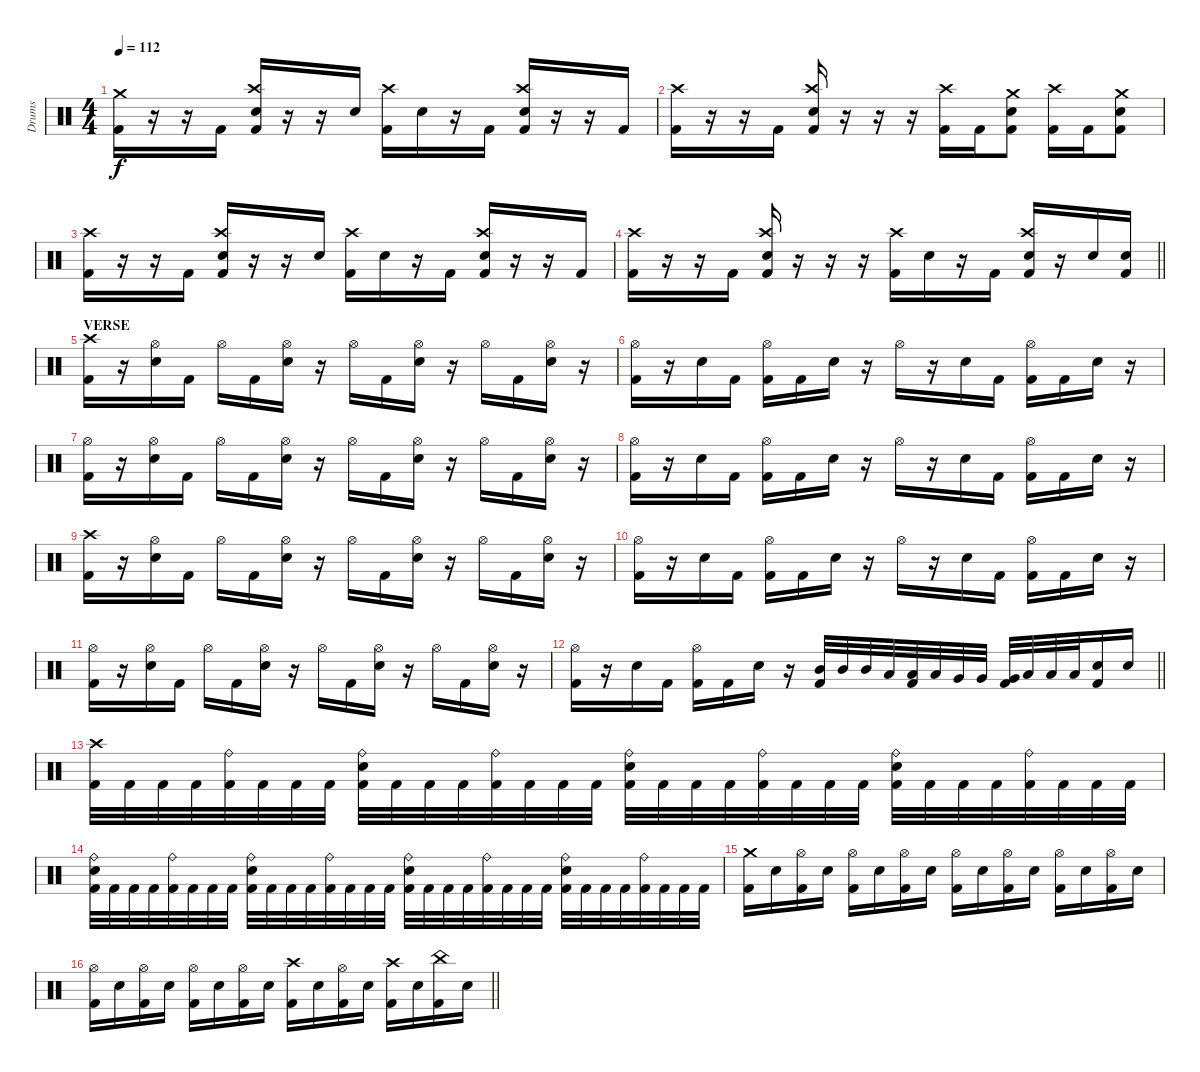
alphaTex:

\track ("Drums" "Drums") {instrument percussion}
\staff
\articulation defaults
\ts (4 4)
\tempo 112
\clef neutral
\ks c
("Crash medium (hit)" "Kick (hit) 2").16{dy f} r.16 r.16 "Kick (hit) 2".16 ("Crash high (hit)" "Snare (hit) 2" "Kick (hit) 2").16 r.16 r.16 "Snare (hit) 2".16 ("Crash high (hit)" "Kick (hit) 2").16 "Snare (hit) 2".16 r.16 "Kick (hit) 2".16 ("Crash high (hit)" "Snare (hit) 2" "Kick (hit) 2").16 r.16 r.16 "Kick (hit) 2".16 |
("Crash high (hit)" "Kick (hit) 2").16 r.16 r.16 "Kick (hit) 2".16 ("Crash high (hit)" "Snare (hit) 2" "Kick (hit) 2").16 r.16 r.16 r.16 ("Crash high (hit)" "Kick (hit) 2").16 "Kick (hit) 2".16 ("Crash medium (hit)" "Snare (hit) 2" "Kick (hit) 2").8 ("Crash high (hit)" "Kick (hit) 2").16 "Kick (hit) 2".16 ("Crash medium (hit)" "Snare (hit) 2" "Kick (hit) 2").8 |
("Crash high (hit)" "Kick (hit) 2").16 r.16 r.16 "Kick (hit) 2".16 ("Crash high (hit)" "Snare (hit) 2" "Kick (hit) 2").16 r.16 r.16 "Snare (hit) 2".16 ("Crash high (hit)" "Kick (hit) 2").16 "Snare (hit) 2".16 r.16 "Kick (hit) 2".16 ("Crash high (hit)" "Snare (hit) 2" "Kick (hit) 2").16 r.16 r.16 "Kick (hit) 2".16 |
\barLineRight lightlight
("Crash high (hit)" "Kick (hit) 2").16 r.16 r.16 "Kick (hit) 2".16 ("Crash high (hit)" "Snare (hit) 2" "Kick (hit) 2").16 r.16 r.16 r.16 ("Crash high (hit)" "Kick (hit) 2").16 "Snare (hit) 2".16 r.16 "Kick (hit) 2".16 ("Crash high (hit)" "Snare (hit) 2" "Kick (hit) 2").16 r.16 "Snare (hit) 2".16 ("Snare (hit) 2" "Kick (hit) 2").16 |
\section ("" "VERSE")
("Crash high (hit)" "Kick (hit) 2").16 r.16 ("Hi-Hat (open)" "Snare (hit) 2").16 "Kick (hit) 2".16 "Hi-Hat (open)".16 "Kick (hit) 2".16 ("Hi-Hat (open)" "Snare (hit) 2").16 r.16 "Hi-Hat (open)".16 "Kick (hit) 2".16 ("Hi-Hat (open)" "Snare (hit) 2").16 r.16 "Hi-Hat (open)".16 "Kick (hit) 2".16 ("Hi-Hat (open)" "Snare (hit) 2").16 r.16 |
("Hi-Hat (open)" "Kick (hit) 2").16 r.16 "Snare (hit) 2".16 "Kick (hit) 2".16 ("Hi-Hat (open)" "Kick (hit) 2").16 "Kick (hit) 2".16 "Snare (hit) 2".16 r.16 "Hi-Hat (open)".16 r.16 "Snare (hit) 2".16 "Kick (hit) 2".16 ("Hi-Hat (open)" "Kick (hit) 2").16 "Kick (hit) 2".16 "Snare (hit) 2".16 r.16 |
("Hi-Hat (open)" "Kick (hit) 2").16 r.16 ("Hi-Hat (open)" "Snare (hit) 2").16 "Kick (hit) 2".16 "Hi-Hat (open)".16 "Kick (hit) 2".16 ("Hi-Hat (open)" "Snare (hit) 2").16 r.16 "Hi-Hat (open)".16 "Kick (hit) 2".16 ("Hi-Hat (open)" "Snare (hit) 2").16 r.16 "Hi-Hat (open)".16 "Kick (hit) 2".16 ("Hi-Hat (open)" "Snare (hit) 2").16 r.16 |
("Hi-Hat (open)" "Kick (hit) 2").16 r.16 "Snare (hit) 2".16 "Kick (hit) 2".16 ("Hi-Hat (open)" "Kick (hit) 2").16 "Kick (hit) 2".16 "Snare (hit) 2".16 r.16 "Hi-Hat (open)".16 r.16 "Snare (hit) 2".16 "Kick (hit) 2".16 ("Hi-Hat (open)" "Kick (hit) 2").16 "Kick (hit) 2".16 "Snare (hit) 2".16 r.16 |
("Crash high (hit)" "Kick (hit) 2").16 r.16 ("Hi-Hat (open)" "Snare (hit) 2").16 "Kick (hit) 2".16 "Hi-Hat (open)".16 "Kick (hit) 2".16 ("Hi-Hat (open)" "Snare (hit) 2").16 r.16 "Hi-Hat (open)".16 "Kick (hit) 2".16 ("Hi-Hat (open)" "Snare (hit) 2").16 r.16 "Hi-Hat (open)".16 "Kick (hit) 2".16 ("Hi-Hat (open)" "Snare (hit) 2").16 r.16 |
("Hi-Hat (open)" "Kick (hit) 2").16 r.16 "Snare (hit) 2".16 "Kick (hit) 2".16 ("Hi-Hat (open)" "Kick (hit) 2").16 "Kick (hit) 2".16 "Snare (hit) 2".16 r.16 "Hi-Hat (open)".16 r.16 "Snare (hit) 2".16 "Kick (hit) 2".16 ("Hi-Hat (open)" "Kick (hit) 2").16 "Kick (hit) 2".16 "Snare (hit) 2".16 r.16 |
("Hi-Hat (open)" "Kick (hit) 2").16 r.16 ("Hi-Hat (open)" "Snare (hit) 2").16 "Kick (hit) 2".16 "Hi-Hat (open)".16 "Kick (hit) 2".16 ("Hi-Hat (open)" "Snare (hit) 2").16 r.16 "Hi-Hat (open)".16 "Kick (hit) 2".16 ("Hi-Hat (open)" "Snare (hit) 2").16 r.16 "Hi-Hat (open)".16 "Kick (hit) 2".16 ("Hi-Hat (open)" "Snare (hit) 2").16 r.16 |
\barLineRight lightlight
("Hi-Hat (open)" "Kick (hit) 2").16 r.16 "Snare (hit) 2".16 "Kick (hit) 2".16 ("Hi-Hat (open)" "Kick (hit) 2").16 "Kick (hit) 2".16 "Snare (hit) 2".16 r.16 ("Mid Tom (hit)" "Kick (hit) 2").32 "Mid Tom (hit)".32 "Mid Tom (hit)".32 "Low Tom (hit)".32 ("Low Tom (hit)" "Kick (hit) 2").32 "Low Tom (hit)".32 "Very Low Tom (hit)".32 "Very Low Tom (hit)".32 ("Very Low Tom (hit)" "Kick (hit) 2").32 "Low Floor Tom (hit)".32 "Low Floor Tom (hit)".32 "Low Floor Tom (hit)".32 ("Snare (hit) 2" "Kick (hit) 2").16 "Snare (hit) 2".16 |
\section ("" "")
("Crash high (hit)" "Kick (hit) 2").32 "Kick (hit) 2".32 "Kick (hit) 2".32 "Kick (hit) 2".32 ("Ride (bell)" "Kick (hit) 2").32 "Kick (hit) 2".32 "Kick (hit) 2".32 "Kick (hit) 2".32 ("Ride (bell)" "Snare (hit) 2" "Kick (hit) 2").32 "Kick (hit) 2".32 "Kick (hit) 2".32 "Kick (hit) 2".32 ("Ride (bell)" "Kick (hit) 2").32 "Kick (hit) 2".32 "Kick (hit) 2".32 "Kick (hit) 2".32 ("Ride (bell)" "Snare (hit) 2" "Kick (hit) 2").32 "Kick (hit) 2".32 "Kick (hit) 2".32 "Kick (hit) 2".32 ("Ride (bell)" "Kick (hit) 2").32 "Kick (hit) 2".32 "Kick (hit) 2".32 "Kick (hit) 2".32 ("Ride (bell)" "Snare (hit) 2" "Kick (hit) 2").32 "Kick (hit) 2".32 "Kick (hit) 2".32 "Kick (hit) 2".32 ("Ride (bell)" "Kick (hit) 2").32 "Kick (hit) 2".32 "Kick (hit) 2".32 "Kick (hit) 2".32 |
("Ride (bell)" "Snare (hit) 2" "Kick (hit) 2").32 "Kick (hit) 2".32 "Kick (hit) 2".32 "Kick (hit) 2".32 ("Ride (bell)" "Kick (hit) 2").32 "Kick (hit) 2".32 "Kick (hit) 2".32 "Kick (hit) 2".32 ("Ride (bell)" "Snare (hit) 2" "Kick (hit) 2").32 "Kick (hit) 2".32 "Kick (hit) 2".32 "Kick (hit) 2".32 ("Ride (bell)" "Kick (hit) 2").32 "Kick (hit) 2".32 "Kick (hit) 2".32 "Kick (hit) 2".32 ("Ride (bell)" "Snare (hit) 2" "Kick (hit) 2").32 "Kick (hit) 2".32 "Kick (hit) 2".32 "Kick (hit) 2".32 ("Ride (bell)" "Kick (hit) 2").32 "Kick (hit) 2".32 "Kick (hit) 2".32 "Kick (hit) 2".32 ("Ride (bell)" "Snare (hit) 2" "Kick (hit) 2").32 "Kick (hit) 2".32 "Kick (hit) 2".32 "Kick (hit) 2".32 ("Ride (bell)" "Kick (hit) 2").32 "Kick (hit) 2".32 "Kick (hit) 2".32 "Kick (hit) 2".32 |
("Crash medium (hit)" "Kick (hit) 2").16 "Snare (hit) 2".16 ("Hi-Hat (open)" "Kick (hit) 2").16 "Snare (hit) 2".16 ("Hi-Hat (open)" "Kick (hit) 2").16 "Snare (hit) 2".16 ("Hi-Hat (open)" "Kick (hit) 2").16 "Snare (hit) 2".16 ("Hi-Hat (open)" "Kick (hit) 2").16 "Snare (hit) 2".16 ("Hi-Hat (open)" "Kick (hit) 2").16 "Snare (hit) 2".16 ("Hi-Hat (open)" "Kick (hit) 2").16 "Snare (hit) 2".16 ("Hi-Hat (open)" "Kick (hit) 2").16 "Snare (hit) 2".16 |
\barLineRight lightlight
("Hi-Hat (open)" "Kick (hit) 2").16 "Snare (hit) 2".16 ("Hi-Hat (open)" "Kick (hit) 2").16 "Snare (hit) 2".16 ("Hi-Hat (open)" "Kick (hit) 2").16 "Snare (hit) 2".16 ("Hi-Hat (open)" "Kick (hit) 2").16 "Snare (hit) 2".16 ("Crash high (hit)" "Kick (hit) 2").16 "Snare (hit) 2".16 ("Hi-Hat (open)" "Kick (hit) 2").16 "Snare (hit) 2".16 ("Crash high (hit)" "Kick (hit) 2").16 "Snare (hit) 2".16 ("China (hit)" "Kick (hit) 2").16 "Snare (hit) 2".16
